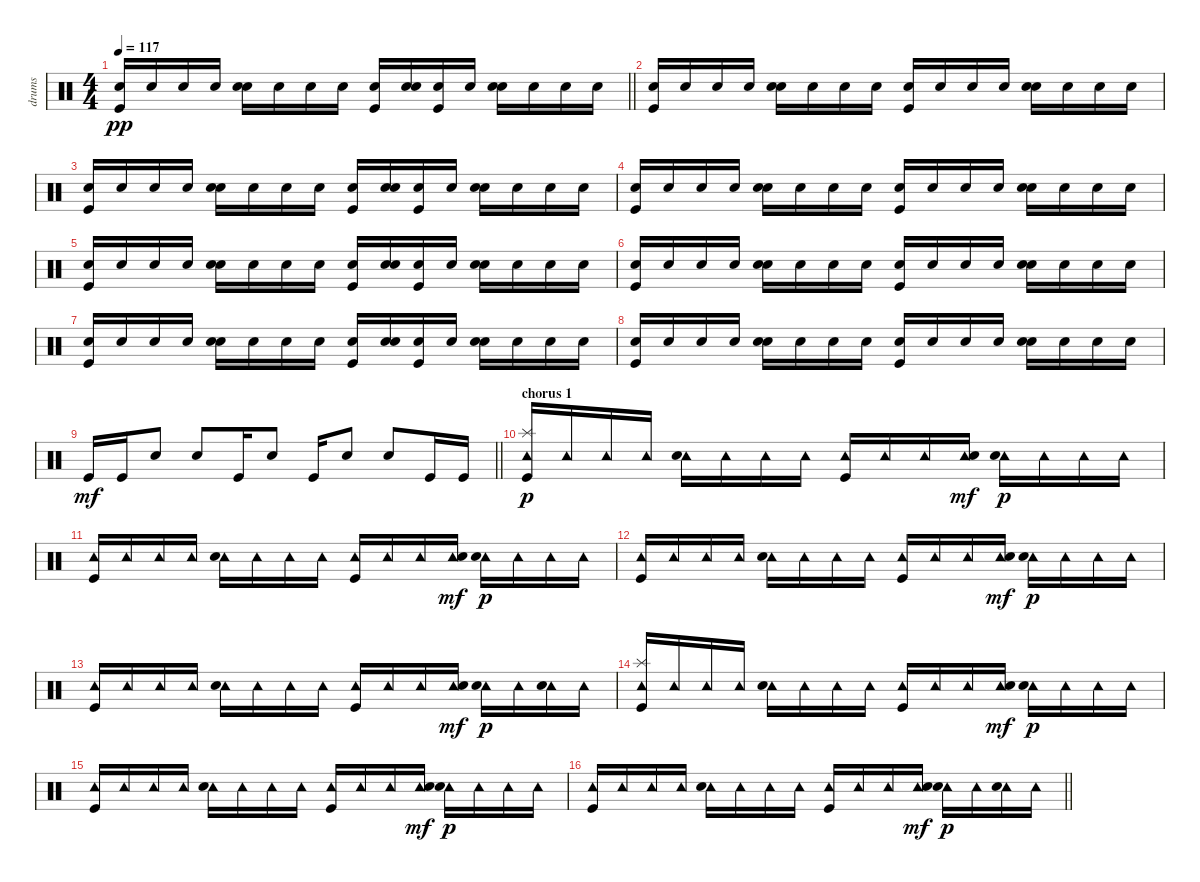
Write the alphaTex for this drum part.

\track ("drums" "drums") {instrument percussion}
\staff {score}
\articulation defaults
\ts (4 4)
\tempo 117
\clef neutral
\barLineRight lightlight
\ks c
("Electric Snare (hit)" "Kick (hit)").16{dy pp} "Electric Snare (hit)".16 "Electric Snare (hit)".16 "Electric Snare (hit)".16 ("Snare (hit) 2" "Electric Snare (hit)").16 "Electric Snare (hit)".16 "Electric Snare (hit)".16 "Electric Snare (hit)".16 ("Electric Snare (hit)" "Kick (hit)").16 ("Snare (hit) 2" "Electric Snare (hit)").16 ("Electric Snare (hit)" "Kick (hit)").16 "Electric Snare (hit)".16 ("Snare (hit) 2" "Electric Snare (hit)").16 "Electric Snare (hit)".16 "Electric Snare (hit)".16 "Electric Snare (hit)".16 |
("Electric Snare (hit)" "Kick (hit)").16 "Electric Snare (hit)".16 "Electric Snare (hit)".16 "Electric Snare (hit)".16 ("Snare (hit) 2" "Electric Snare (hit)").16 "Electric Snare (hit)".16 "Electric Snare (hit)".16 "Electric Snare (hit)".16 ("Electric Snare (hit)" "Kick (hit)").16 "Electric Snare (hit)".16 "Electric Snare (hit)".16 "Electric Snare (hit)".16 ("Snare (hit) 2" "Electric Snare (hit)").16 "Electric Snare (hit)".16 "Electric Snare (hit)".16 "Electric Snare (hit)".16 |
("Electric Snare (hit)" "Kick (hit)").16 "Electric Snare (hit)".16 "Electric Snare (hit)".16 "Electric Snare (hit)".16 ("Snare (hit) 2" "Electric Snare (hit)").16 "Electric Snare (hit)".16 "Electric Snare (hit)".16 "Electric Snare (hit)".16 ("Electric Snare (hit)" "Kick (hit)").16 ("Snare (hit) 2" "Electric Snare (hit)").16 ("Electric Snare (hit)" "Kick (hit)").16 "Electric Snare (hit)".16 ("Snare (hit) 2" "Electric Snare (hit)").16 "Electric Snare (hit)".16 "Electric Snare (hit)".16 "Electric Snare (hit)".16 |
("Electric Snare (hit)" "Kick (hit)").16 "Electric Snare (hit)".16 "Electric Snare (hit)".16 "Electric Snare (hit)".16 ("Snare (hit) 2" "Electric Snare (hit)").16 "Electric Snare (hit)".16 "Electric Snare (hit)".16 "Electric Snare (hit)".16 ("Electric Snare (hit)" "Kick (hit)").16 "Electric Snare (hit)".16 "Electric Snare (hit)".16 "Electric Snare (hit)".16 ("Snare (hit) 2" "Electric Snare (hit)").16 "Electric Snare (hit)".16 "Electric Snare (hit)".16 "Electric Snare (hit)".16 |
("Electric Snare (hit)" "Kick (hit)").16 "Electric Snare (hit)".16 "Electric Snare (hit)".16 "Electric Snare (hit)".16 ("Snare (hit) 2" "Electric Snare (hit)").16 "Electric Snare (hit)".16 "Electric Snare (hit)".16 "Electric Snare (hit)".16 ("Electric Snare (hit)" "Kick (hit)").16 ("Snare (hit) 2" "Electric Snare (hit)").16 ("Electric Snare (hit)" "Kick (hit)").16 "Electric Snare (hit)".16 ("Snare (hit) 2" "Electric Snare (hit)").16 "Electric Snare (hit)".16 "Electric Snare (hit)".16 "Electric Snare (hit)".16 |
("Electric Snare (hit)" "Kick (hit)").16 "Electric Snare (hit)".16 "Electric Snare (hit)".16 "Electric Snare (hit)".16 ("Snare (hit) 2" "Electric Snare (hit)").16 "Electric Snare (hit)".16 "Electric Snare (hit)".16 "Electric Snare (hit)".16 ("Electric Snare (hit)" "Kick (hit)").16 "Electric Snare (hit)".16 "Electric Snare (hit)".16 "Electric Snare (hit)".16 ("Snare (hit) 2" "Electric Snare (hit)").16 "Electric Snare (hit)".16 "Electric Snare (hit)".16 "Electric Snare (hit)".16 |
("Electric Snare (hit)" "Kick (hit)").16 "Electric Snare (hit)".16 "Electric Snare (hit)".16 "Electric Snare (hit)".16 ("Snare (hit) 2" "Electric Snare (hit)").16 "Electric Snare (hit)".16 "Electric Snare (hit)".16 "Electric Snare (hit)".16 ("Electric Snare (hit)" "Kick (hit)").16 ("Snare (hit) 2" "Electric Snare (hit)").16 ("Electric Snare (hit)" "Kick (hit)").16 "Electric Snare (hit)".16 ("Snare (hit) 2" "Electric Snare (hit)").16 "Electric Snare (hit)".16 "Electric Snare (hit)".16 "Electric Snare (hit)".16 |
("Electric Snare (hit)" "Kick (hit)").16 "Electric Snare (hit)".16 "Electric Snare (hit)".16 "Electric Snare (hit)".16 ("Snare (hit) 2" "Electric Snare (hit)").16 "Electric Snare (hit)".16 "Electric Snare (hit)".16 "Electric Snare (hit)".16 ("Electric Snare (hit)" "Kick (hit)").16 "Electric Snare (hit)".16 "Electric Snare (hit)".16 "Electric Snare (hit)".16 ("Snare (hit) 2" "Electric Snare (hit)").16 "Electric Snare (hit)".16 "Electric Snare (hit)".16 "Electric Snare (hit)".16 |
\barLineRight lightlight "Kick (hit)".16{dy mf} "Kick (hit)".16 "Electric Snare (hit)".8 "Electric Snare (hit)".8 "Kick (hit)".16 "Electric Snare (hit)".8 "Kick (hit)".16 "Electric Snare (hit)".8 "Electric Snare (hit)".8 "Kick (hit)".16 "Kick (hit)".16
|
\section ("" "chorus 1")
("Splash (hit)" "Tambourine (hit)" "Kick (hit)").16{dy p} "Tambourine (hit)".16 "Tambourine (hit)".16 "Tambourine (hit)".16 ("Tambourine (hit)" "Snare (hit) 2").16 "Tambourine (hit)".16 "Tambourine (hit)".16 "Tambourine (hit)".16 ("Tambourine (hit)" "Kick (hit)").16 "Tambourine (hit)".16 "Tambourine (hit)".16 ("Tambourine (hit)" "Electric Snare (hit)").16{dy mf} ("Tambourine (hit)" "Electric Snare (hit)").16{dy p} "Tambourine (hit)".16 "Tambourine (hit)".16 "Tambourine (hit)".16 |
("Tambourine (hit)" "Kick (hit)").16 "Tambourine (hit)".16 "Tambourine (hit)".16 "Tambourine (hit)".16 ("Tambourine (hit)" "Snare (hit) 2").16 "Tambourine (hit)".16 "Tambourine (hit)".16 "Tambourine (hit)".16 ("Tambourine (hit)" "Kick (hit)").16 "Tambourine (hit)".16 "Tambourine (hit)".16 ("Tambourine (hit)" "Electric Snare (hit)").16{dy mf} ("Tambourine (hit)" "Electric Snare (hit)").16{dy p} "Tambourine (hit)".16 "Tambourine (hit)".16 "Tambourine (hit)".16 |
("Tambourine (hit)" "Kick (hit)").16 "Tambourine (hit)".16 "Tambourine (hit)".16 "Tambourine (hit)".16 ("Tambourine (hit)" "Snare (hit) 2").16 "Tambourine (hit)".16 "Tambourine (hit)".16 "Tambourine (hit)".16 ("Tambourine (hit)" "Kick (hit)").16 "Tambourine (hit)".16 "Tambourine (hit)".16 ("Tambourine (hit)" "Electric Snare (hit)").16{dy mf} ("Tambourine (hit)" "Electric Snare (hit)").16{dy p} "Tambourine (hit)".16 "Tambourine (hit)".16 "Tambourine (hit)".16 |
("Tambourine (hit)" "Kick (hit)").16 "Tambourine (hit)".16 "Tambourine (hit)".16 "Tambourine (hit)".16 ("Tambourine (hit)" "Snare (hit) 2").16 "Tambourine (hit)".16 "Tambourine (hit)".16 "Tambourine (hit)".16 ("Tambourine (hit)" "Kick (hit)").16 "Tambourine (hit)".16 "Tambourine (hit)".16 ("Tambourine (hit)" "Electric Snare (hit)").16{dy mf} ("Tambourine (hit)" "Electric Snare (hit)").16{dy p} "Tambourine (hit)".16 ("Tambourine (hit)" "Electric Snare (hit)").16 "Tambourine (hit)".16 |
("Splash (hit)" "Tambourine (hit)" "Kick (hit)").16 "Tambourine (hit)".16 "Tambourine (hit)".16 "Tambourine (hit)".16 ("Tambourine (hit)" "Snare (hit) 2").16 "Tambourine (hit)".16 "Tambourine (hit)".16 "Tambourine (hit)".16 ("Tambourine (hit)" "Kick (hit)").16 "Tambourine (hit)".16 "Tambourine (hit)".16 ("Tambourine (hit)" "Electric Snare (hit)").16{dy mf} ("Tambourine (hit)" "Electric Snare (hit)").16{dy p} "Tambourine (hit)".16 "Tambourine (hit)".16 "Tambourine (hit)".16 |
("Tambourine (hit)" "Kick (hit)").16 "Tambourine (hit)".16 "Tambourine (hit)".16 "Tambourine (hit)".16 ("Tambourine (hit)" "Snare (hit) 2").16 "Tambourine (hit)".16 "Tambourine (hit)".16 "Tambourine (hit)".16 ("Tambourine (hit)" "Kick (hit)").16 "Tambourine (hit)".16 "Tambourine (hit)".16 ("Tambourine (hit)" "Electric Snare (hit)").16{dy mf} ("Tambourine (hit)" "Electric Snare (hit)").16{dy p} "Tambourine (hit)".16 "Tambourine (hit)".16 "Tambourine (hit)".16 |
\barLineRight lightlight
("Tambourine (hit)" "Kick (hit)").16 "Tambourine (hit)".16 "Tambourine (hit)".16 "Tambourine (hit)".16 ("Tambourine (hit)" "Snare (hit) 2").16 "Tambourine (hit)".16 "Tambourine (hit)".16 "Tambourine (hit)".16 ("Tambourine (hit)" "Kick (hit)").16 "Tambourine (hit)".16 "Tambourine (hit)".16 ("Tambourine (hit)" "Electric Snare (hit)").16{dy mf} ("Tambourine (hit)" "Electric Snare (hit)").16{dy p} "Tambourine (hit)".16 ("Tambourine (hit)" "Electric Snare (hit)").16 "Tambourine (hit)".16
